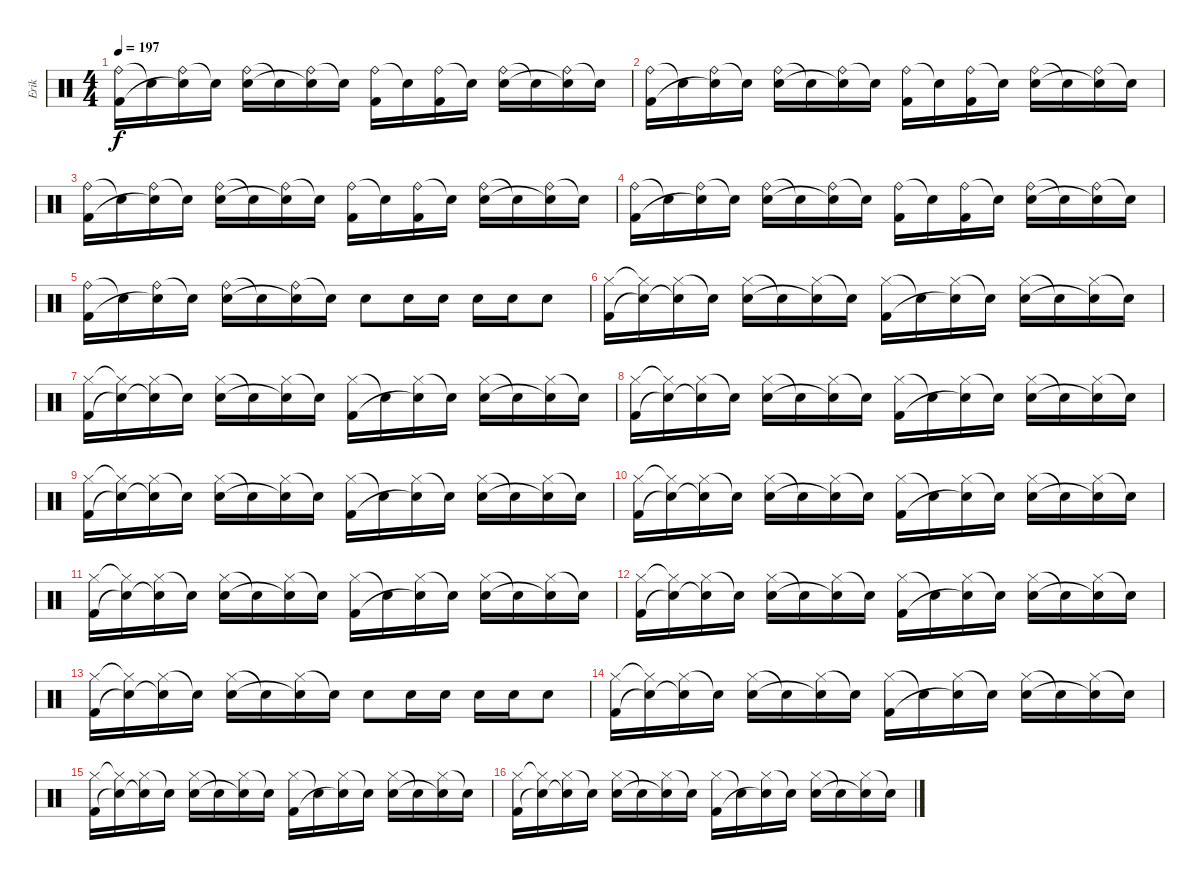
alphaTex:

\track ("Erik" "Erik") {instrument percussion}
\staff {score}
\articulation defaults
\ts (4 4)
\tempo 197
\clef neutral
\ks c
("Ride (bell)" "Kick (hit) 2").16{dy f} "Snare (hit)"{t}.16 ("Ride (bell)" "Snare (hit)"{t}).16 "Snare (hit)"{t}.16 ("Ride (bell)" "Electric Snare (hit)").16 "Snare (hit)"{t}.16 ("Ride (bell)" "Snare (hit)"{t}).16 "Snare (hit)"{t}.16 ("Ride (bell)" "Kick (hit) 2").16 "Snare (hit)"{t}.16 ("Ride (bell)" "Kick (hit) 2").16 "Snare (hit)"{t}.16 ("Ride (bell)" "Electric Snare (hit)").16 "Snare (hit)"{t}.16 ("Ride (bell)" "Snare (hit)"{t}).16 "Snare (hit)"{t}.16 |
("Ride (bell)" "Kick (hit) 2").16 "Snare (hit)"{t}.16 ("Ride (bell)" "Snare (hit)"{t}).16 "Snare (hit)"{t}.16 ("Ride (bell)" "Electric Snare (hit)").16 "Snare (hit)"{t}.16 ("Ride (bell)" "Snare (hit)"{t}).16 "Snare (hit)"{t}.16 ("Ride (bell)" "Kick (hit) 2").16 "Snare (hit)"{t}.16 ("Ride (bell)" "Kick (hit) 2").16 "Snare (hit)"{t}.16 ("Ride (bell)" "Electric Snare (hit)").16 "Snare (hit)"{t}.16 ("Ride (bell)" "Snare (hit)"{t}).16 "Snare (hit)"{t}.16 |
("Ride (bell)" "Kick (hit) 2").16 "Snare (hit)"{t}.16 ("Ride (bell)" "Snare (hit)"{t}).16 "Snare (hit)"{t}.16 ("Ride (bell)" "Electric Snare (hit)").16 "Snare (hit)"{t}.16 ("Ride (bell)" "Snare (hit)"{t}).16 "Snare (hit)"{t}.16 ("Ride (bell)" "Kick (hit) 2").16 "Snare (hit)"{t}.16 ("Ride (bell)" "Kick (hit) 2").16 "Snare (hit)"{t}.16 ("Ride (bell)" "Electric Snare (hit)").16 "Snare (hit)"{t}.16 ("Ride (bell)" "Snare (hit)"{t}).16 "Snare (hit)"{t}.16 |
("Ride (bell)" "Kick (hit) 2").16 "Snare (hit)"{t}.16 ("Ride (bell)" "Snare (hit)"{t}).16 "Snare (hit)"{t}.16 ("Ride (bell)" "Electric Snare (hit)").16 "Snare (hit)"{t}.16 ("Ride (bell)" "Snare (hit)"{t}).16 "Snare (hit)"{t}.16 ("Ride (bell)" "Kick (hit) 2").16 "Snare (hit)"{t}.16 ("Ride (bell)" "Kick (hit) 2").16 "Snare (hit)"{t}.16 ("Ride (bell)" "Electric Snare (hit)").16 "Snare (hit)"{t}.16 ("Ride (bell)" "Snare (hit)"{t}).16 "Snare (hit)"{t}.16 |
("Ride (bell)" "Kick (hit) 2").16 "Snare (hit)"{t}.16 ("Ride (bell)" "Snare (hit)"{t}).16 "Snare (hit)"{t}.16 ("Ride (bell)" "Electric Snare (hit)").16 "Snare (hit)"{t}.16 ("Ride (bell)" "Snare (hit)"{t}).16 "Snare (hit)"{t}.16 "Electric Snare (hit)".8 "Electric Snare (hit)".16 "Electric Snare (hit)".16 "Electric Snare (hit)".16 "Electric Snare (hit)".16 "Electric Snare (hit)".8 |
("Hi-Hat (closed)" "Kick (hit) 2").16 ("Hi-Hat (closed)"{t} "Electric Snare (hit)"{t}).16 ("Hi-Hat (closed)" "Snare (hit)"{t}).16 "Snare (hit)"{t}.16 ("Hi-Hat (closed)" "Electric Snare (hit)").16 "Snare (hit)"{t}.16 ("Hi-Hat (closed)" "Snare (hit)"{t}).16 "Snare (hit)"{t}.16 ("Hi-Hat (closed)" "Kick (hit) 2").16 "Snare (hit)"{t}.16 ("Hi-Hat (closed)" "Snare (hit)"{t}).16 "Snare (hit)"{t}.16 ("Hi-Hat (closed)" "Electric Snare (hit)").16 "Snare (hit)"{t}.16 ("Hi-Hat (closed)" "Snare (hit)"{t}).16 "Snare (hit)"{t}.16 |
("Hi-Hat (closed)" "Kick (hit) 2").16 ("Hi-Hat (closed)"{t} "Electric Snare (hit)"{t}).16 ("Hi-Hat (closed)" "Snare (hit)"{t}).16 "Snare (hit)"{t}.16 ("Hi-Hat (closed)" "Electric Snare (hit)").16 "Snare (hit)"{t}.16 ("Hi-Hat (closed)" "Snare (hit)"{t}).16 "Snare (hit)"{t}.16 ("Hi-Hat (closed)" "Kick (hit) 2").16 "Snare (hit)"{t}.16 ("Hi-Hat (closed)" "Snare (hit)"{t}).16 "Snare (hit)"{t}.16 ("Hi-Hat (closed)" "Electric Snare (hit)").16 "Snare (hit)"{t}.16 ("Hi-Hat (closed)" "Snare (hit)"{t}).16 "Snare (hit)"{t}.16 |
("Hi-Hat (closed)" "Kick (hit) 2").16 ("Hi-Hat (closed)"{t} "Electric Snare (hit)"{t}).16 ("Hi-Hat (closed)" "Snare (hit)"{t}).16 "Snare (hit)"{t}.16 ("Hi-Hat (closed)" "Electric Snare (hit)").16 "Snare (hit)"{t}.16 ("Hi-Hat (closed)" "Snare (hit)"{t}).16 "Snare (hit)"{t}.16 ("Hi-Hat (closed)" "Kick (hit) 2").16 "Snare (hit)"{t}.16 ("Hi-Hat (closed)" "Snare (hit)"{t}).16 "Snare (hit)"{t}.16 ("Hi-Hat (closed)" "Electric Snare (hit)").16 "Snare (hit)"{t}.16 ("Hi-Hat (closed)" "Snare (hit)"{t}).16 "Snare (hit)"{t}.16 |
("Hi-Hat (closed)" "Kick (hit) 2").16 ("Hi-Hat (closed)"{t} "Electric Snare (hit)"{t}).16 ("Hi-Hat (closed)" "Snare (hit)"{t}).16 "Snare (hit)"{t}.16 ("Hi-Hat (closed)" "Electric Snare (hit)").16 "Snare (hit)"{t}.16 ("Hi-Hat (closed)" "Snare (hit)"{t}).16 "Snare (hit)"{t}.16 ("Hi-Hat (closed)" "Kick (hit) 2").16 "Snare (hit)"{t}.16 ("Hi-Hat (closed)" "Snare (hit)"{t}).16 "Snare (hit)"{t}.16 ("Hi-Hat (closed)" "Electric Snare (hit)").16 "Snare (hit)"{t}.16 ("Hi-Hat (closed)" "Snare (hit)"{t}).16 "Snare (hit)"{t}.16 |
("Hi-Hat (closed)" "Kick (hit) 2").16 ("Hi-Hat (closed)"{t} "Electric Snare (hit)"{t}).16 ("Hi-Hat (closed)" "Snare (hit)"{t}).16 "Snare (hit)"{t}.16 ("Hi-Hat (closed)" "Electric Snare (hit)").16 "Snare (hit)"{t}.16 ("Hi-Hat (closed)" "Snare (hit)"{t}).16 "Snare (hit)"{t}.16 ("Hi-Hat (closed)" "Kick (hit) 2").16 "Snare (hit)"{t}.16 ("Hi-Hat (closed)" "Snare (hit)"{t}).16 "Snare (hit)"{t}.16 ("Hi-Hat (closed)" "Electric Snare (hit)").16 "Snare (hit)"{t}.16 ("Hi-Hat (closed)" "Snare (hit)"{t}).16 "Snare (hit)"{t}.16 |
("Hi-Hat (closed)" "Kick (hit) 2").16 ("Hi-Hat (closed)"{t} "Electric Snare (hit)"{t}).16 ("Hi-Hat (closed)" "Snare (hit)"{t}).16 "Snare (hit)"{t}.16 ("Hi-Hat (closed)" "Electric Snare (hit)").16 "Snare (hit)"{t}.16 ("Hi-Hat (closed)" "Snare (hit)"{t}).16 "Snare (hit)"{t}.16 ("Hi-Hat (closed)" "Kick (hit) 2").16 "Snare (hit)"{t}.16 ("Hi-Hat (closed)" "Snare (hit)"{t}).16 "Snare (hit)"{t}.16 ("Hi-Hat (closed)" "Electric Snare (hit)").16 "Snare (hit)"{t}.16 ("Hi-Hat (closed)" "Snare (hit)"{t}).16 "Snare (hit)"{t}.16 |
("Hi-Hat (closed)" "Kick (hit) 2").16 ("Hi-Hat (closed)"{t} "Electric Snare (hit)"{t}).16 ("Hi-Hat (closed)" "Snare (hit)"{t}).16 "Snare (hit)"{t}.16 ("Hi-Hat (closed)" "Electric Snare (hit)").16 "Snare (hit)"{t}.16 ("Hi-Hat (closed)" "Snare (hit)"{t}).16 "Snare (hit)"{t}.16 ("Hi-Hat (closed)" "Kick (hit) 2").16 "Snare (hit)"{t}.16 ("Hi-Hat (closed)" "Snare (hit)"{t}).16 "Snare (hit)"{t}.16 ("Hi-Hat (closed)" "Electric Snare (hit)").16 "Snare (hit)"{t}.16 ("Hi-Hat (closed)" "Snare (hit)"{t}).16 "Snare (hit)"{t}.16 |
("Hi-Hat (closed)" "Kick (hit) 2").16 ("Hi-Hat (closed)"{t} "Electric Snare (hit)"{t}).16 ("Hi-Hat (closed)" "Snare (hit)"{t}).16 "Snare (hit)"{t}.16 ("Hi-Hat (closed)" "Electric Snare (hit)").16 "Snare (hit)"{t}.16 ("Hi-Hat (closed)" "Snare (hit)"{t}).16 "Snare (hit)"{t}.16 "Electric Snare (hit)".8 "Electric Snare (hit)".16 "Electric Snare (hit)".16 "Electric Snare (hit)".16 "Electric Snare (hit)".16 "Electric Snare (hit)".8 |
("Hi-Hat (closed)" "Kick (hit) 2").16 ("Hi-Hat (closed)"{t} "Electric Snare (hit)"{t}).16 ("Hi-Hat (closed)" "Snare (hit)"{t}).16 "Snare (hit)"{t}.16 ("Hi-Hat (closed)" "Electric Snare (hit)").16 "Snare (hit)"{t}.16 ("Hi-Hat (closed)" "Snare (hit)"{t}).16 "Snare (hit)"{t}.16 ("Hi-Hat (closed)" "Kick (hit) 2").16 "Snare (hit)"{t}.16 ("Hi-Hat (closed)" "Snare (hit)"{t}).16 "Snare (hit)"{t}.16 ("Hi-Hat (closed)" "Electric Snare (hit)").16 "Snare (hit)"{t}.16 ("Hi-Hat (closed)" "Snare (hit)"{t}).16 "Snare (hit)"{t}.16 |
("Hi-Hat (closed)" "Kick (hit) 2").16 ("Hi-Hat (closed)"{t} "Electric Snare (hit)"{t}).16 ("Hi-Hat (closed)" "Snare (hit)"{t}).16 "Snare (hit)"{t}.16 ("Hi-Hat (closed)" "Electric Snare (hit)").16 "Snare (hit)"{t}.16 ("Hi-Hat (closed)" "Snare (hit)"{t}).16 "Snare (hit)"{t}.16 ("Hi-Hat (closed)" "Kick (hit) 2").16 "Snare (hit)"{t}.16 ("Hi-Hat (closed)" "Snare (hit)"{t}).16 "Snare (hit)"{t}.16 ("Hi-Hat (closed)" "Electric Snare (hit)").16 "Snare (hit)"{t}.16 ("Hi-Hat (closed)" "Snare (hit)"{t}).16 "Snare (hit)"{t}.16 |
("Hi-Hat (closed)" "Kick (hit) 2").16 ("Hi-Hat (closed)"{t} "Electric Snare (hit)"{t}).16 ("Hi-Hat (closed)" "Snare (hit)"{t}).16 "Snare (hit)"{t}.16 ("Hi-Hat (closed)" "Electric Snare (hit)").16 "Snare (hit)"{t}.16 ("Hi-Hat (closed)" "Snare (hit)"{t}).16 "Snare (hit)"{t}.16 ("Hi-Hat (closed)" "Kick (hit) 2").16 "Snare (hit)"{t}.16 ("Hi-Hat (closed)" "Snare (hit)"{t}).16 "Snare (hit)"{t}.16 ("Hi-Hat (closed)" "Electric Snare (hit)").16 "Snare (hit)"{t}.16 ("Hi-Hat (closed)" "Snare (hit)"{t}).16 "Snare (hit)"{t}.16
